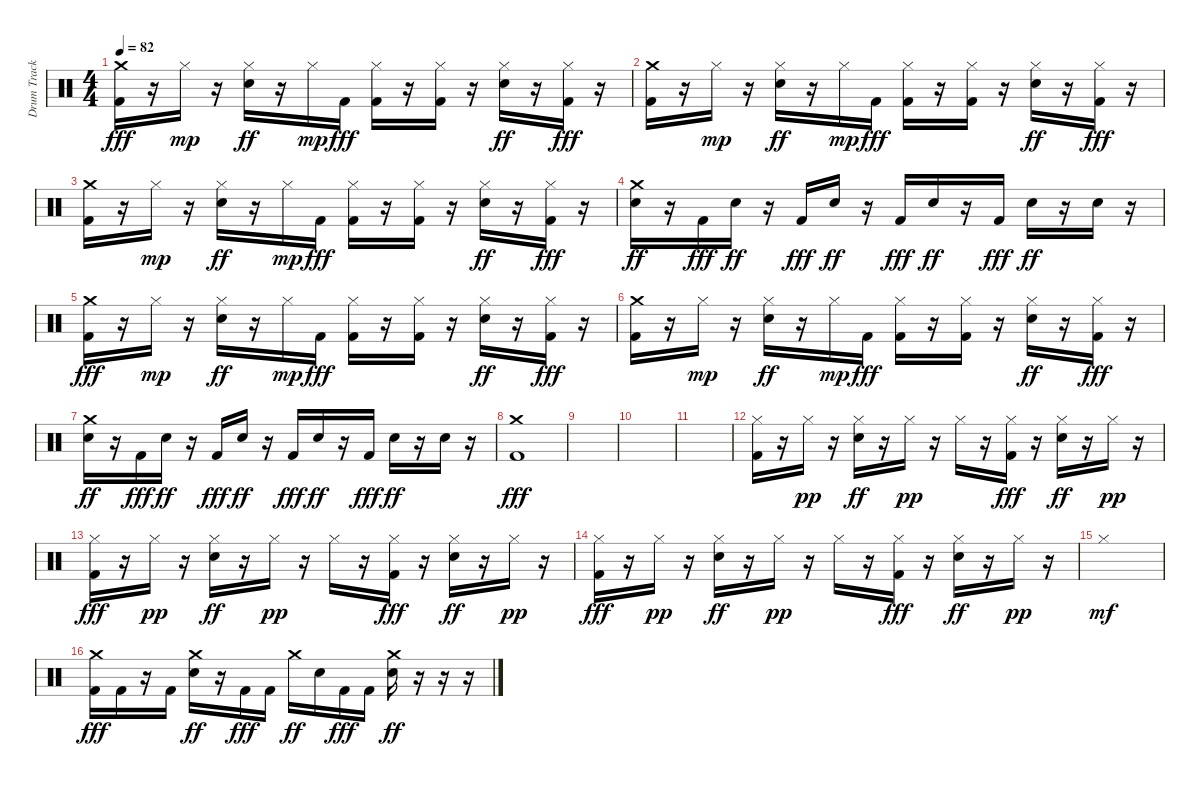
\track ("Drum Track" "Drum Track") {instrument percussion}
\staff {score}
\articulation defaults
\ts (4 4)
\tempo 82
\clef neutral
\ks c
("Crash medium (hit)" "Kick (hit) 2").16{dy fff} r.16 "Hi-Hat (closed)".16{dy mp} r.16 ("Hi-Hat (closed)" "Electric Snare (hit)").16{dy ff} r.16 "Hi-Hat (closed)".16{dy mp} "Kick (hit) 2".16{dy fff} ("Hi-Hat (closed)" "Kick (hit) 2").16 r.16 ("Hi-Hat (closed)" "Kick (hit) 2").16 r.16 ("Hi-Hat (closed)" "Electric Snare (hit)").16{dy ff} r.16 ("Hi-Hat (closed)" "Kick (hit) 2").16{dy fff} r.16 |
("Crash medium (hit)" "Kick (hit) 2").16 r.16 "Hi-Hat (closed)".16{dy mp} r.16 ("Hi-Hat (closed)" "Electric Snare (hit)").16{dy ff} r.16 "Hi-Hat (closed)".16{dy mp} "Kick (hit) 2".16{dy fff} ("Hi-Hat (closed)" "Kick (hit) 2").16 r.16 ("Hi-Hat (closed)" "Kick (hit) 2").16 r.16 ("Hi-Hat (closed)" "Electric Snare (hit)").16{dy ff} r.16 ("Hi-Hat (closed)" "Kick (hit) 2").16{dy fff} r.16 |
("Crash medium (hit)" "Kick (hit) 2").16 r.16 "Hi-Hat (closed)".16{dy mp} r.16 ("Hi-Hat (closed)" "Electric Snare (hit)").16{dy ff} r.16 "Hi-Hat (closed)".16{dy mp} "Kick (hit) 2".16{dy fff} ("Hi-Hat (closed)" "Kick (hit) 2").16 r.16 ("Hi-Hat (closed)" "Kick (hit) 2").16 r.16 ("Hi-Hat (closed)" "Electric Snare (hit)").16{dy ff} r.16 ("Hi-Hat (closed)" "Kick (hit) 2").16{dy fff} r.16 |
("Crash medium (hit)" "Electric Snare (hit)").16{dy ff} r.16 "Kick (hit) 2".16{dy fff} "Electric Snare (hit)".16{dy ff} r.16 "Kick (hit) 2".16{dy fff} "Electric Snare (hit)".16{dy ff} r.16 "Kick (hit) 2".16{dy fff} "Electric Snare (hit)".16{dy ff} r.16 "Kick (hit) 2".16{dy fff} "Electric Snare (hit)".16{dy ff} r.16 "Electric Snare (hit)".16 r.16 |
("Crash medium (hit)" "Kick (hit) 2").16{dy fff} r.16 "Hi-Hat (closed)".16{dy mp} r.16 ("Hi-Hat (closed)" "Electric Snare (hit)").16{dy ff} r.16 "Hi-Hat (closed)".16{dy mp} "Kick (hit) 2".16{dy fff} ("Hi-Hat (closed)" "Kick (hit) 2").16 r.16 ("Hi-Hat (closed)" "Kick (hit) 2").16 r.16 ("Hi-Hat (closed)" "Electric Snare (hit)").16{dy ff} r.16 ("Hi-Hat (closed)" "Kick (hit) 2").16{dy fff} r.16 |
("Crash medium (hit)" "Kick (hit) 2").16 r.16 "Hi-Hat (closed)".16{dy mp} r.16 ("Hi-Hat (closed)" "Electric Snare (hit)").16{dy ff} r.16 "Hi-Hat (closed)".16{dy mp} "Kick (hit) 2".16{dy fff} ("Hi-Hat (closed)" "Kick (hit) 2").16 r.16 ("Hi-Hat (closed)" "Kick (hit) 2").16 r.16 ("Hi-Hat (closed)" "Electric Snare (hit)").16{dy ff} r.16 ("Hi-Hat (closed)" "Kick (hit) 2").16{dy fff} r.16 |
("Crash medium (hit)" "Electric Snare (hit)").16{dy ff} r.16 "Kick (hit) 2".16{dy fff} "Electric Snare (hit)".16{dy ff} r.16 "Kick (hit) 2".16{dy fff} "Electric Snare (hit)".16{dy ff} r.16 "Kick (hit) 2".16{dy fff} "Electric Snare (hit)".16{dy ff} r.16 "Kick (hit) 2".16{dy fff} "Electric Snare (hit)".16{dy ff} r.16 "Electric Snare (hit)".16 r.16 |
("Crash medium (hit)" "Kick (hit) 2").1{dy fff} |
|
|
|
("Hi-Hat (closed)" "Kick (hit) 2").16 r.16 "Hi-Hat (closed)".16{dy pp} r.16 ("Hi-Hat (closed)" "Electric Snare (hit)").16{dy ff} r.16 "Hi-Hat (closed)".16{dy pp} r.16 "Hi-Hat (closed)".16 r.16 ("Hi-Hat (closed)" "Kick (hit) 2").16{dy fff} r.16 ("Hi-Hat (closed)" "Electric Snare (hit)").16{dy ff} r.16 "Hi-Hat (closed)".16{dy pp} r.16 |
("Hi-Hat (closed)" "Kick (hit) 2").16{dy fff} r.16 "Hi-Hat (closed)".16{dy pp} r.16 ("Hi-Hat (closed)" "Electric Snare (hit)").16{dy ff} r.16 "Hi-Hat (closed)".16{dy pp} r.16 "Hi-Hat (closed)".16 r.16 ("Hi-Hat (closed)" "Kick (hit) 2").16{dy fff} r.16 ("Hi-Hat (closed)" "Electric Snare (hit)").16{dy ff} r.16 "Hi-Hat (closed)".16{dy pp} r.16 |
("Hi-Hat (closed)" "Kick (hit) 2").16{dy fff} r.16 "Hi-Hat (closed)".16{dy pp} r.16 ("Hi-Hat (closed)" "Electric Snare (hit)").16{dy ff} r.16 "Hi-Hat (closed)".16{dy pp} r.16 "Hi-Hat (closed)".16 r.16 ("Hi-Hat (closed)" "Kick (hit) 2").16{dy fff} r.16 ("Hi-Hat (closed)" "Electric Snare (hit)").16{dy ff} r.16 "Hi-Hat (closed)".16{dy pp} r.16 |
"Hi-Hat (closed)".1{dy mf} |
("Crash medium (hit)" "Kick (hit) 2").16{dy fff} "Kick (hit) 2".16 r.16 "Kick (hit) 2".16 ("Crash medium (hit)" "Electric Snare (hit)").16{dy ff} r.16 "Kick (hit) 2".16{dy fff} "Kick (hit) 2".16 "Crash medium (hit)".16{dy ff} "Electric Snare (hit)".16 "Kick (hit) 2".16{dy fff} "Kick (hit) 2".16 ("Crash medium (hit)" "Electric Snare (hit)").16{dy ff} r.16 r.16 r.16
